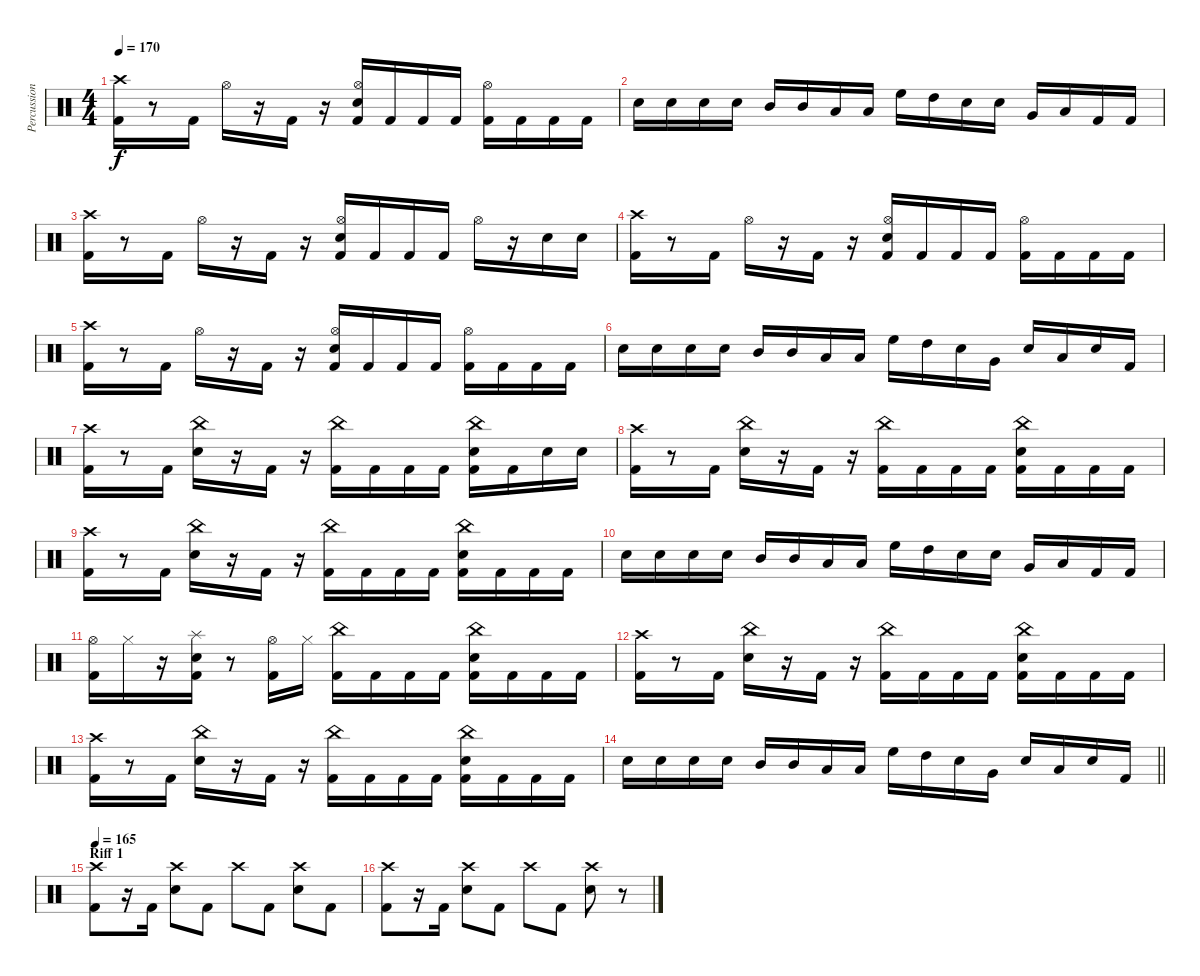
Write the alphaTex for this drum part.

\track ("Percussion" "Percussion") {instrument percussion}
\staff {score}
\articulation defaults
\ts (4 4)
\tempo 170
\clef neutral
\ks c
("Kick (hit) 2" "Crash high (hit)").16{dy f} r.8 "Kick (hit) 2".16 "Hi-Hat (open)".16 r.16 "Kick (hit) 2".16 r.16 ("Kick (hit) 2" "Snare (hit) 2" "Hi-Hat (open)").16 "Kick (hit) 2".16 "Kick (hit) 2".16 "Kick (hit) 2".16 ("Kick (hit) 2" "Hi-Hat (open)").16 "Kick (hit) 2".16 "Kick (hit) 2".16 "Kick (hit) 2".16 |
"Snare (hit) 2".16 "Snare (hit) 2".16 "Snare (hit) 2".16 "Snare (hit) 2".16 "Mid Tom (hit)".16 "Mid Tom (hit)".16 "Low Tom (hit)".16 "Low Tom (hit)".16 "High Floor Tom (hit)".16 "High Tom (hit)".16 "Snare (hit) 2".16 "Snare (hit) 2".16 "Very Low Tom (hit)".16 "Low Floor Tom (hit)".16 "Kick (hit) 2".16 "Kick (hit) 2".16 |
("Kick (hit) 2" "Crash high (hit)").16 r.8 "Kick (hit) 2".16 "Hi-Hat (open)".16 r.16 "Kick (hit) 2".16 r.16 ("Kick (hit) 2" "Snare (hit) 2" "Hi-Hat (open)").16 "Kick (hit) 2".16 "Kick (hit) 2".16 "Kick (hit) 2".16 "Hi-Hat (open)".16 r.16 "Snare (hit) 2".16 "Snare (hit) 2".16 |
("Kick (hit) 2" "Crash high (hit)").16 r.8 "Kick (hit) 2".16 "Hi-Hat (open)".16 r.16 "Kick (hit) 2".16 r.16 ("Kick (hit) 2" "Snare (hit) 2" "Hi-Hat (open)").16 "Kick (hit) 2".16 "Kick (hit) 2".16 "Kick (hit) 2".16 ("Kick (hit) 2" "Hi-Hat (open)").16 "Kick (hit) 2".16 "Kick (hit) 2".16 "Kick (hit) 2".16 |
("Kick (hit) 2" "Crash high (hit)").16 r.8 "Kick (hit) 2".16 "Hi-Hat (open)".16 r.16 "Kick (hit) 2".16 r.16 ("Kick (hit) 2" "Snare (hit) 2" "Hi-Hat (open)").16 "Kick (hit) 2".16 "Kick (hit) 2".16 "Kick (hit) 2".16 ("Kick (hit) 2" "Hi-Hat (open)").16 "Kick (hit) 2".16 "Kick (hit) 2".16 "Kick (hit) 2".16 |
"Snare (hit) 2".16 "Snare (hit) 2".16 "Snare (hit) 2".16 "Snare (hit) 2".16 "Mid Tom (hit)".16 "Mid Tom (hit)".16 "Low Tom (hit)".16 "Low Tom (hit)".16 "High Floor Tom (hit)".16 "High Tom (hit)".16 "Snare (hit) 2".16 "Very Low Tom (hit)".16 "Snare (hit) 2".16 "Low Floor Tom (hit)".16 "Snare (hit) 2".16 "Kick (hit) 2".16 |
("Kick (hit) 2" "Crash high (hit)").16 r.8 "Kick (hit) 2".16 ("Snare (hit) 2" "China (hit)").16 r.16 "Kick (hit) 2".16 r.16 ("Kick (hit) 2" "China (hit)").16 "Kick (hit) 2".16 "Kick (hit) 2".16 "Kick (hit) 2".16 ("Kick (hit) 2" "Snare (hit) 2" "China (hit)").16 "Kick (hit) 2".16 "Snare (hit) 2".16 "Snare (hit) 2".16 |
("Kick (hit) 2" "Crash high (hit)").16 r.8 "Kick (hit) 2".16 ("Snare (hit) 2" "China (hit)").16 r.16 "Kick (hit) 2".16 r.16 ("Kick (hit) 2" "China (hit)").16 "Kick (hit) 2".16 "Kick (hit) 2".16 "Kick (hit) 2".16 ("Kick (hit) 2" "Snare (hit) 2" "China (hit)").16 "Kick (hit) 2".16 "Kick (hit) 2".16 "Kick (hit) 2".16 |
("Kick (hit) 2" "Crash high (hit)").16 r.8 "Kick (hit) 2".16 ("Snare (hit) 2" "China (hit)").16 r.16 "Kick (hit) 2".16 r.16 ("Kick (hit) 2" "China (hit)").16 "Kick (hit) 2".16 "Kick (hit) 2".16 "Kick (hit) 2".16 ("Kick (hit) 2" "Snare (hit) 2" "China (hit)").16 "Kick (hit) 2".16 "Kick (hit) 2".16 "Kick (hit) 2".16 |
"Snare (hit) 2".16 "Snare (hit) 2".16 "Snare (hit) 2".16 "Snare (hit) 2".16 "Mid Tom (hit)".16 "Mid Tom (hit)".16 "Low Tom (hit)".16 "Low Tom (hit)".16 "High Floor Tom (hit)".16 "High Tom (hit)".16 "Snare (hit) 2".16 "Snare (hit) 2".16 "Very Low Tom (hit)".16 "Low Floor Tom (hit)".16 "Kick (hit) 2".16 "Kick (hit) 2".16 |
("Kick (hit) 2" "Hi-Hat (open)").16 "Hi-Hat (closed)".16 r.16 ("Kick (hit) 2" "Snare (hit) 2" "Splash (hit)").16 r.8 ("Kick (hit) 2" "Hi-Hat (open)").16 "Hi-Hat (closed)".16 ("Kick (hit) 2" "China (hit)").16 "Kick (hit) 2".16 "Kick (hit) 2".16 "Kick (hit) 2".16 ("Kick (hit) 2" "Snare (hit) 2" "China (hit)").16 "Kick (hit) 2".16 "Kick (hit) 2".16 "Kick (hit) 2".16 |
("Kick (hit) 2" "Crash high (hit)").16 r.8 "Kick (hit) 2".16 ("Snare (hit) 2" "China (hit)").16 r.16 "Kick (hit) 2".16 r.16 ("Kick (hit) 2" "China (hit)").16 "Kick (hit) 2".16 "Kick (hit) 2".16 "Kick (hit) 2".16 ("Kick (hit) 2" "Snare (hit) 2" "China (hit)").16 "Kick (hit) 2".16 "Kick (hit) 2".16 "Kick (hit) 2".16 |
("Kick (hit) 2" "Crash high (hit)").16 r.8 "Kick (hit) 2".16 ("Snare (hit) 2" "China (hit)").16 r.16 "Kick (hit) 2".16 r.16 ("Kick (hit) 2" "China (hit)").16 "Kick (hit) 2".16 "Kick (hit) 2".16 "Kick (hit) 2".16 ("Kick (hit) 2" "Snare (hit) 2" "China (hit)").16 "Kick (hit) 2".16 "Kick (hit) 2".16 "Kick (hit) 2".16 |
\barLineRight lightlight "Snare (hit) 2".16 "Snare (hit) 2".16 "Snare (hit) 2".16 "Snare (hit) 2".16 "Mid Tom (hit)".16 "Mid Tom (hit)".16 "Low Tom (hit)".16 "Low Tom (hit)".16 "High Floor Tom (hit)".16 "High Tom (hit)".16 "Snare (hit) 2".16 "Very Low Tom (hit)".16 "Snare (hit) 2".16 "Low Floor Tom (hit)".16 "Snare (hit) 2".16 "Kick (hit) 2".16
|
\section ("" "Riff 1")
\tempo 165
("Kick (hit) 2" "Crash high (hit)").8 r.16 "Kick (hit) 2".16 ("Snare (hit) 2" "Crash high (hit)").8 "Kick (hit) 2".8 "Crash high (hit)".8 "Kick (hit) 2".8 ("Snare (hit) 2" "Crash high (hit)").8 "Kick (hit) 2".8 |
("Kick (hit) 2" "Crash high (hit)").8 r.16 "Kick (hit) 2".16 ("Snare (hit) 2" "Crash high (hit)").8 "Kick (hit) 2".8 "Crash high (hit)".8 "Kick (hit) 2".8 ("Snare (hit) 2" "Crash high (hit)").8 r.8
